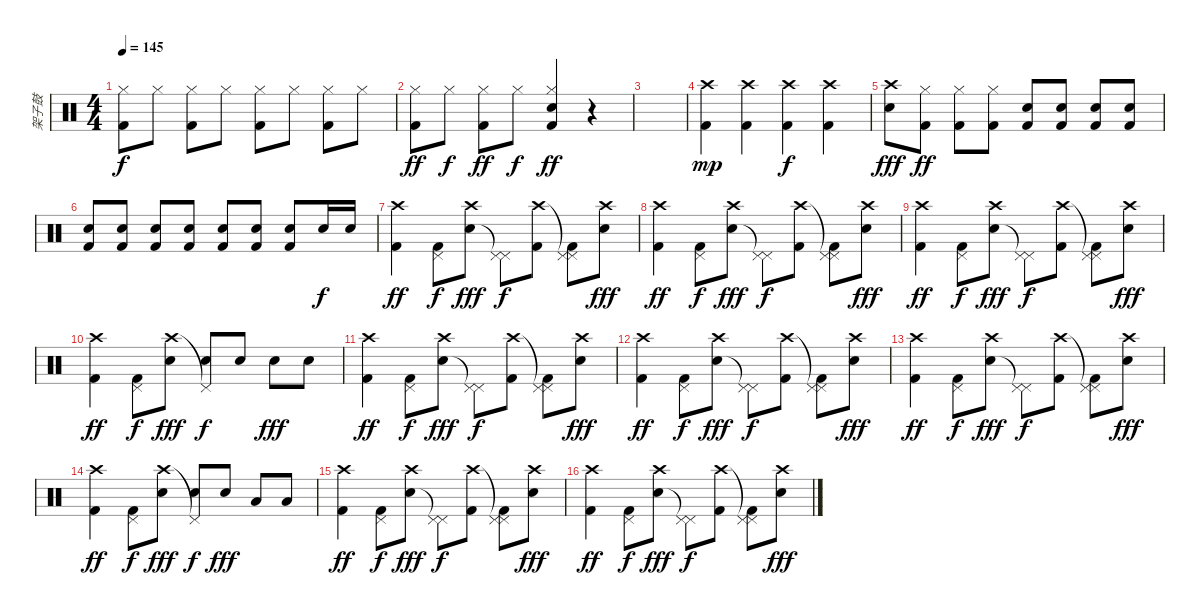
\track ("架子鼓" "架子鼓") {instrument percussion}
\staff {score}
\articulation defaults
\ts (4 4)
\tempo 145
\clef neutral
\ks c
("Kick (hit) 2" "Hi-Hat (closed)").8{dy f} "Hi-Hat (closed)".8 ("Kick (hit) 2" "Hi-Hat (closed)").8 "Hi-Hat (closed)".8 ("Kick (hit) 2" "Hi-Hat (closed)").8 "Hi-Hat (closed)".8 ("Kick (hit) 2" "Hi-Hat (closed)").8 "Hi-Hat (closed)".8 |
("Kick (hit) 2" "Hi-Hat (closed)").8{dy ff} "Hi-Hat (closed)".8{dy f} ("Kick (hit) 2" "Hi-Hat (closed)").8{dy ff} "Hi-Hat (closed)".8{dy f} ("Snare (hit) 2" "Kick (hit) 2" "Hi-Hat (closed)").4{dy ff} r.4 |
|
("Kick (hit) 2" "Crash high (hit)").4{dy mp} ("Kick (hit) 2" "Crash high (hit)").4 ("Kick (hit) 2" "Crash high (hit)").4{dy f} ("Kick (hit) 2" "Crash high (hit)").4 |
("Snare (hit) 2" "Crash high (hit)").8{dy fff} ("Kick (hit) 2" "Hi-Hat (closed)").8{dy ff} ("Kick (hit) 2" "Hi-Hat (closed)").8 ("Kick (hit) 2" "Hi-Hat (closed)").8 ("Snare (hit) 2" "Kick (hit) 2").8 ("Snare (hit) 2" "Kick (hit) 2").8 ("Snare (hit) 2" "Kick (hit) 2").8 ("Snare (hit) 2" "Kick (hit) 2").8 |
("Snare (hit) 2" "Kick (hit) 2").8 ("Snare (hit) 2" "Kick (hit) 2").8 ("Snare (hit) 2" "Kick (hit) 2").8 ("Snare (hit) 2" "Kick (hit) 2").8 ("Snare (hit) 2" "Kick (hit) 2").8 ("Snare (hit) 2" "Kick (hit) 2").8 ("Snare (hit) 2" "Kick (hit) 2").8 "Snare (hit) 2".16{dy f} "Snare (hit) 2".16 |
("Kick (hit) 2" "Crash high (hit)").4{dy ff} ("Kick (hit) 2" "Pedal Hi-Hat (hit)").8{dy f} ("Snare (hit) 2" "Crash high (hit)").8{dy fff} ("Pedal Hi-Hat (hit)"{t} "Pedal Hi-Hat (hit)").8{dy f} ("Kick (hit) 2" "Crash high (hit)").8 ("Kick (hit) 2" "Pedal Hi-Hat (hit)"{t} "Pedal Hi-Hat (hit)").8 ("Snare (hit) 2" "Crash high (hit)").8{dy fff} |
("Kick (hit) 2" "Crash high (hit)").4{dy ff} ("Kick (hit) 2" "Pedal Hi-Hat (hit)").8{dy f} ("Snare (hit) 2" "Crash high (hit)").8{dy fff} ("Pedal Hi-Hat (hit)"{t} "Pedal Hi-Hat (hit)").8{dy f} ("Kick (hit) 2" "Crash high (hit)").8 ("Kick (hit) 2" "Pedal Hi-Hat (hit)"{t} "Pedal Hi-Hat (hit)").8 ("Snare (hit) 2" "Crash high (hit)").8{dy fff} |
("Kick (hit) 2" "Crash high (hit)").4{dy ff} ("Kick (hit) 2" "Pedal Hi-Hat (hit)").8{dy f} ("Snare (hit) 2" "Crash high (hit)").8{dy fff} ("Pedal Hi-Hat (hit)"{t} "Pedal Hi-Hat (hit)").8{dy f} ("Kick (hit) 2" "Crash high (hit)").8 ("Kick (hit) 2" "Pedal Hi-Hat (hit)"{t} "Pedal Hi-Hat (hit)").8 ("Snare (hit) 2" "Crash high (hit)").8{dy fff} |
("Kick (hit) 2" "Crash high (hit)").4{dy ff} ("Kick (hit) 2" "Pedal Hi-Hat (hit)").8{dy f} ("Snare (hit) 2" "Crash high (hit)").8{dy fff} ("Snare (hit) 2" "Pedal Hi-Hat (hit)"{t}).8{dy f} "Snare (hit) 2".8 "Snare (hit) 2".8{dy fff} "Snare (hit) 2".8 |
("Kick (hit) 2" "Crash high (hit)").4{dy ff} ("Kick (hit) 2" "Pedal Hi-Hat (hit)").8{dy f} ("Snare (hit) 2" "Crash high (hit)").8{dy fff} ("Pedal Hi-Hat (hit)"{t} "Pedal Hi-Hat (hit)").8{dy f} ("Kick (hit) 2" "Crash high (hit)").8 ("Kick (hit) 2" "Pedal Hi-Hat (hit)"{t} "Pedal Hi-Hat (hit)").8 ("Snare (hit) 2" "Crash high (hit)").8{dy fff} |
("Kick (hit) 2" "Crash high (hit)").4{dy ff} ("Kick (hit) 2" "Pedal Hi-Hat (hit)").8{dy f} ("Snare (hit) 2" "Crash high (hit)").8{dy fff} ("Pedal Hi-Hat (hit)"{t} "Pedal Hi-Hat (hit)").8{dy f} ("Kick (hit) 2" "Crash high (hit)").8 ("Kick (hit) 2" "Pedal Hi-Hat (hit)"{t} "Pedal Hi-Hat (hit)").8 ("Snare (hit) 2" "Crash high (hit)").8{dy fff} |
("Kick (hit) 2" "Crash high (hit)").4{dy ff} ("Kick (hit) 2" "Pedal Hi-Hat (hit)").8{dy f} ("Snare (hit) 2" "Crash high (hit)").8{dy fff} ("Pedal Hi-Hat (hit)"{t} "Pedal Hi-Hat (hit)").8{dy f} ("Kick (hit) 2" "Crash high (hit)").8 ("Kick (hit) 2" "Pedal Hi-Hat (hit)"{t} "Pedal Hi-Hat (hit)").8 ("Snare (hit) 2" "Crash high (hit)").8{dy fff} |
("Kick (hit) 2" "Crash high (hit)").4{dy ff} ("Kick (hit) 2" "Pedal Hi-Hat (hit)").8{dy f} ("Snare (hit) 2" "Crash high (hit)").8{dy fff} ("Snare (hit) 2" "Pedal Hi-Hat (hit)"{t}).8{dy f} "Snare (hit) 2".8{dy fff} "Low Tom (hit)".8 "Low Tom (hit)".8 |
("Kick (hit) 2" "Crash high (hit)").4{dy ff} ("Kick (hit) 2" "Pedal Hi-Hat (hit)").8{dy f} ("Snare (hit) 2" "Crash high (hit)").8{dy fff} ("Pedal Hi-Hat (hit)"{t} "Pedal Hi-Hat (hit)").8{dy f} ("Kick (hit) 2" "Crash high (hit)").8 ("Kick (hit) 2" "Pedal Hi-Hat (hit)"{t} "Pedal Hi-Hat (hit)").8 ("Snare (hit) 2" "Crash high (hit)").8{dy fff} |
("Kick (hit) 2" "Crash high (hit)").4{dy ff} ("Kick (hit) 2" "Pedal Hi-Hat (hit)").8{dy f} ("Snare (hit) 2" "Crash high (hit)").8{dy fff} ("Pedal Hi-Hat (hit)"{t} "Pedal Hi-Hat (hit)").8{dy f} ("Kick (hit) 2" "Crash high (hit)").8 ("Kick (hit) 2" "Pedal Hi-Hat (hit)"{t} "Pedal Hi-Hat (hit)").8 ("Snare (hit) 2" "Crash high (hit)").8{dy fff}
